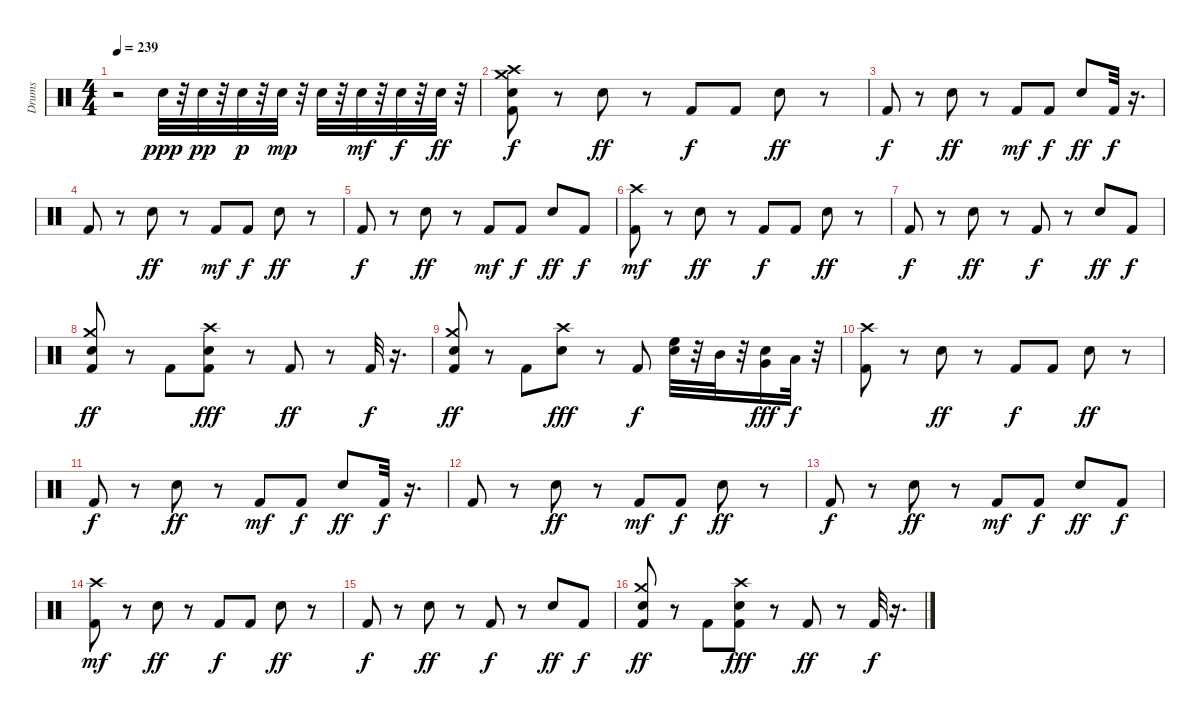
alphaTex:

\track ("Drums" "Drums") {instrument percussion}
\staff {score}
\articulation defaults
\ts (4 4)
\tempo 239
\clef neutral
\ks c
r.2{dy f} "Snare (hit) 2".32{dy ppp} r.32 "Snare (hit) 2".32{dy pp} r.32 "Snare (hit) 2".32{dy p} r.32 "Snare (hit) 2".32{dy mp} r.32 "Snare (hit) 2".32 r.32 "Snare (hit) 2".32{dy mf} r.32 "Snare (hit) 2".32{dy f} r.32 "Snare (hit) 2".32{dy ff} r.32 |
("Crash medium (hit)" "Kick (hit) 2" "Crash high (hit)" "Snare (hit) 2").8{dy f} r.8 "Snare (hit) 2".8{dy ff} r.8 "Kick (hit) 2".8{dy f} "Kick (hit) 2".8 "Snare (hit) 2".8{dy ff} r.8 |
"Kick (hit) 2".8{dy f} r.8 "Snare (hit) 2".8{dy ff} r.8 "Kick (hit) 2".8{dy mf} "Kick (hit) 2".8{dy f} "Snare (hit) 2".8{dy ff} "Kick (hit) 2".32{dy f} r.16{d} |
"Kick (hit) 2".8 r.8 "Snare (hit) 2".8{dy ff} r.8 "Kick (hit) 2".8{dy mf} "Kick (hit) 2".8{dy f} "Snare (hit) 2".8{dy ff} r.8 |
"Kick (hit) 2".8{dy f} r.8 "Snare (hit) 2".8{dy ff} r.8 "Kick (hit) 2".8{dy mf} "Kick (hit) 2".8{dy f} "Snare (hit) 2".8{dy ff} "Kick (hit) 2".8{dy f} |
("Kick (hit) 2" "Crash high (hit)").8{dy mf} r.8 "Snare (hit) 2".8{dy ff} r.8 "Kick (hit) 2".8{dy f} "Kick (hit) 2".8 "Snare (hit) 2".8{dy ff} r.8 |
"Kick (hit) 2".8{dy f} r.8 "Snare (hit) 2".8{dy ff} r.8 "Kick (hit) 2".8{dy f} r.8 "Snare (hit) 2".8{dy ff} "Kick (hit) 2".8{dy f} |
("Kick (hit) 2" "Crash medium (hit)" "Snare (hit) 2").8{dy ff} r.8 "Kick (hit) 2".8 ("Kick (hit) 2" "Snare (hit) 2" "Crash high (hit)").8{dy fff} r.8 "Kick (hit) 2".8{dy ff} r.8 "Kick (hit) 2".32{dy f} r.16{d} |
("Kick (hit) 2" "Crash medium (hit)" "Snare (hit) 2").8{dy ff} r.8 "Kick (hit) 2".8 ("Snare (hit) 2" "Crash high (hit)").8{dy fff} r.8 "Kick (hit) 2".8{dy f} ("High Floor Tom (hit)" "Snare (hit) 2").32 r.32 "Mid Tom (hit)".32 r.32 ("Snare (hit) 2" "Very Low Tom (hit)").16{dy fff} "Low Floor Tom (hit)".32{dy f} r.32 |
("Kick (hit) 2" "Crash high (hit)").8 r.8 "Snare (hit) 2".8{dy ff} r.8 "Kick (hit) 2".8{dy f} "Kick (hit) 2".8 "Snare (hit) 2".8{dy ff} r.8 |
"Kick (hit) 2".8{dy f} r.8 "Snare (hit) 2".8{dy ff} r.8 "Kick (hit) 2".8{dy mf} "Kick (hit) 2".8{dy f} "Snare (hit) 2".8{dy ff} "Kick (hit) 2".32{dy f} r.16{d} |
"Kick (hit) 2".8 r.8 "Snare (hit) 2".8{dy ff} r.8 "Kick (hit) 2".8{dy mf} "Kick (hit) 2".8{dy f} "Snare (hit) 2".8{dy ff} r.8 |
"Kick (hit) 2".8{dy f} r.8 "Snare (hit) 2".8{dy ff} r.8 "Kick (hit) 2".8{dy mf} "Kick (hit) 2".8{dy f} "Snare (hit) 2".8{dy ff} "Kick (hit) 2".8{dy f} |
("Kick (hit) 2" "Crash high (hit)").8{dy mf} r.8 "Snare (hit) 2".8{dy ff} r.8 "Kick (hit) 2".8{dy f} "Kick (hit) 2".8 "Snare (hit) 2".8{dy ff} r.8 |
"Kick (hit) 2".8{dy f} r.8 "Snare (hit) 2".8{dy ff} r.8 "Kick (hit) 2".8{dy f} r.8 "Snare (hit) 2".8{dy ff} "Kick (hit) 2".8{dy f} |
("Kick (hit) 2" "Crash medium (hit)" "Snare (hit) 2").8{dy ff} r.8 "Kick (hit) 2".8 ("Kick (hit) 2" "Snare (hit) 2" "Crash high (hit)").8{dy fff} r.8 "Kick (hit) 2".8{dy ff} r.8 "Kick (hit) 2".32{dy f} r.16{d}
